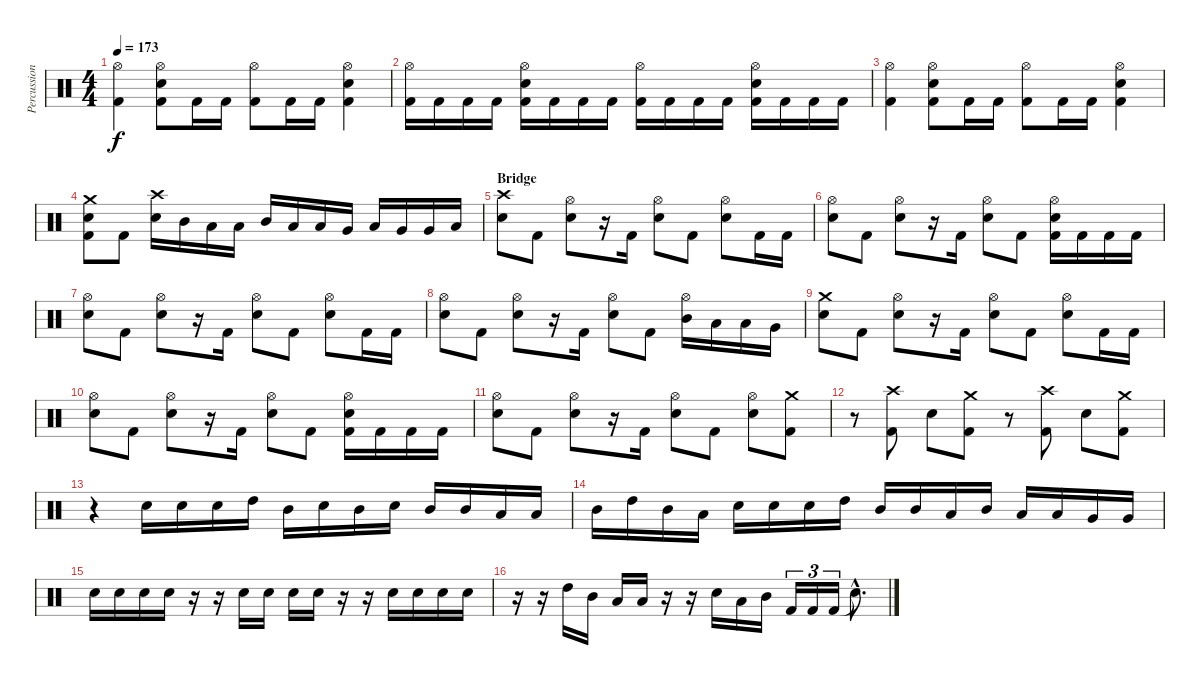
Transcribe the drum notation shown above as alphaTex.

\track ("Percussions" "Percussion") {instrument percussion}
\staff {score}
\articulation defaults
\ts (4 4)
\tempo 173
\clef neutral
\ks c
("Hi-Hat (open)" "Kick (hit) 2").4{dy f} ("Hi-Hat (open)" "Electric Snare (hit)" "Kick (hit) 2").8 "Kick (hit) 2".16 "Kick (hit) 2".16 ("Hi-Hat (open)" "Kick (hit) 2").8 "Kick (hit) 2".16 "Kick (hit) 2".16 ("Hi-Hat (open)" "Electric Snare (hit)" "Kick (hit) 2").4 |
("Hi-Hat (open)" "Kick (hit) 2").16 "Kick (hit) 2".16 "Kick (hit) 2".16 "Kick (hit) 2".16 ("Hi-Hat (open)" "Electric Snare (hit)" "Kick (hit) 2").16 "Kick (hit) 2".16 "Kick (hit) 2".16 "Kick (hit) 2".16 ("Hi-Hat (open)" "Kick (hit) 2").16 "Kick (hit) 2".16 "Kick (hit) 2".16 "Kick (hit) 2".16 ("Hi-Hat (open)" "Electric Snare (hit)" "Kick (hit) 2").16 "Kick (hit) 2".16 "Kick (hit) 2".16 "Kick (hit) 2".16 |
("Hi-Hat (open)" "Kick (hit) 2").4 ("Hi-Hat (open)" "Electric Snare (hit)" "Kick (hit) 2").8 "Kick (hit) 2".16 "Kick (hit) 2".16 ("Hi-Hat (open)" "Kick (hit) 2").8 "Kick (hit) 2".16 "Kick (hit) 2".16 ("Hi-Hat (open)" "Electric Snare (hit)" "Kick (hit) 2").4 |
("Crash medium (hit)" "Electric Snare (hit)" "Kick (hit) 2").8 "Kick (hit) 2".8 ("Crash high (hit)" "Electric Snare (hit)").16 "Mid Tom (hit)".16 "Low Tom (hit)".16 "Low Tom (hit)".16 "Mid Tom (hit)".16 "Low Tom (hit)".16 "Low Tom (hit)".16 "Very Low Tom (hit)".16 "Low Tom (hit)".16 "Very Low Tom (hit)".16 "Very Low Tom (hit)".16 "Low Floor Tom (hit)".16 |
\section ("" "Bridge")
("Crash high (hit)" "Electric Snare (hit)").8 "Kick (hit) 2".8 ("Hi-Hat (open)" "Electric Snare (hit)").8 r.16 "Kick (hit) 2".16 ("Hi-Hat (open)" "Electric Snare (hit)").8 "Kick (hit) 2".8 ("Hi-Hat (open)" "Electric Snare (hit)").8 "Kick (hit) 2".16 "Kick (hit) 2".16 |
("Hi-Hat (open)" "Electric Snare (hit)").8 "Kick (hit) 2".8 ("Hi-Hat (open)" "Electric Snare (hit)").8 r.16 "Kick (hit) 2".16 ("Hi-Hat (open)" "Electric Snare (hit)").8 "Kick (hit) 2".8 ("Hi-Hat (open)" "Electric Snare (hit)" "Kick (hit) 2").16 "Kick (hit) 2".16 "Kick (hit) 2".16 "Kick (hit) 2".16 |
("Hi-Hat (open)" "Electric Snare (hit)").8 "Kick (hit) 2".8 ("Hi-Hat (open)" "Electric Snare (hit)").8 r.16 "Kick (hit) 2".16 ("Hi-Hat (open)" "Electric Snare (hit)").8 "Kick (hit) 2".8 ("Hi-Hat (open)" "Electric Snare (hit)").8 "Kick (hit) 2".16 "Kick (hit) 2".16 |
("Hi-Hat (open)" "Electric Snare (hit)").8 "Kick (hit) 2".8 ("Hi-Hat (open)" "Electric Snare (hit)").8 r.16 "Kick (hit) 2".16 ("Hi-Hat (open)" "Electric Snare (hit)").8 "Kick (hit) 2".8 ("Hi-Hat (open)" "Mid Tom (hit)").16 "Low Tom (hit)".16 "Low Tom (hit)".16 "Very Low Tom (hit)".16 |
("Crash medium (hit)" "Electric Snare (hit)").8 "Kick (hit) 2".8 ("Hi-Hat (open)" "Electric Snare (hit)").8 r.16 "Kick (hit) 2".16 ("Hi-Hat (open)" "Electric Snare (hit)").8 "Kick (hit) 2".8 ("Hi-Hat (open)" "Electric Snare (hit)").8 "Kick (hit) 2".16 "Kick (hit) 2".16 |
("Hi-Hat (open)" "Electric Snare (hit)").8 "Kick (hit) 2".8 ("Hi-Hat (open)" "Electric Snare (hit)").8 r.16 "Kick (hit) 2".16 ("Hi-Hat (open)" "Electric Snare (hit)").8 "Kick (hit) 2".8 ("Hi-Hat (open)" "Electric Snare (hit)" "Kick (hit) 2").16 "Kick (hit) 2".16 "Kick (hit) 2".16 "Kick (hit) 2".16 |
("Hi-Hat (open)" "Electric Snare (hit)").8 "Kick (hit) 2".8 ("Hi-Hat (open)" "Electric Snare (hit)").8 r.16 "Kick (hit) 2".16 ("Hi-Hat (open)" "Electric Snare (hit)").8 "Kick (hit) 2".8 ("Hi-Hat (open)" "Electric Snare (hit)").8 ("Crash medium (hit)" "Kick (hit) 2").8 |
r.8 ("Crash high (hit)" "Kick (hit) 2").8 "Electric Snare (hit)".8 ("Crash medium (hit)" "Kick (hit) 2").8 r.8 ("Crash high (hit)" "Kick (hit) 2").8 "Electric Snare (hit)".8 ("Crash medium (hit)" "Kick (hit) 2").8 |
r.4 "Electric Snare (hit)".16 "Electric Snare (hit)".16 "Electric Snare (hit)".16 "High Tom (hit)".16 "Mid Tom (hit)".16 "Electric Snare (hit)".16 "Mid Tom (hit)".16 "Electric Snare (hit)".16 "Mid Tom (hit)".16 "Mid Tom (hit)".16 "Low Tom (hit)".16 "Low Tom (hit)".16 |
"Mid Tom (hit)".16 "High Tom (hit)".16 "Mid Tom (hit)".16 "Low Tom (hit)".16 "Electric Snare (hit)".16 "Electric Snare (hit)".16 "Electric Snare (hit)".16 "High Tom (hit)".16 "Mid Tom (hit)".16 "Mid Tom (hit)".16 "Low Tom (hit)".16 "Mid Tom (hit)".16 "Low Tom (hit)".16 "Low Tom (hit)".16 "Very Low Tom (hit)".16 "Very Low Tom (hit)".16 |
"Electric Snare (hit)".16 "Electric Snare (hit)".16 "Electric Snare (hit)".16 "Electric Snare (hit)".16 r.16 r.16 "Electric Snare (hit)".16 "Electric Snare (hit)".16 "Electric Snare (hit)".16 "Electric Snare (hit)".16 r.16 r.16 "Electric Snare (hit)".16 "Electric Snare (hit)".16 "Electric Snare (hit)".16 "Electric Snare (hit)".16 |
r.16 r.16 "High Tom (hit)".16 "Mid Tom (hit)".16 "Low Tom (hit)".16 "Low Tom (hit)".16 r.16 r.16 "Electric Snare (hit)".16 "Low Tom (hit)".16 "Mid Tom (hit)".16 "Kick (hit) 2".16{tu (3 2)} "Kick (hit) 2".16{tu (3 2)} "Kick (hit) 2".16{tu (3 2)} "Snare (hit)"{hac t}.8{d}
